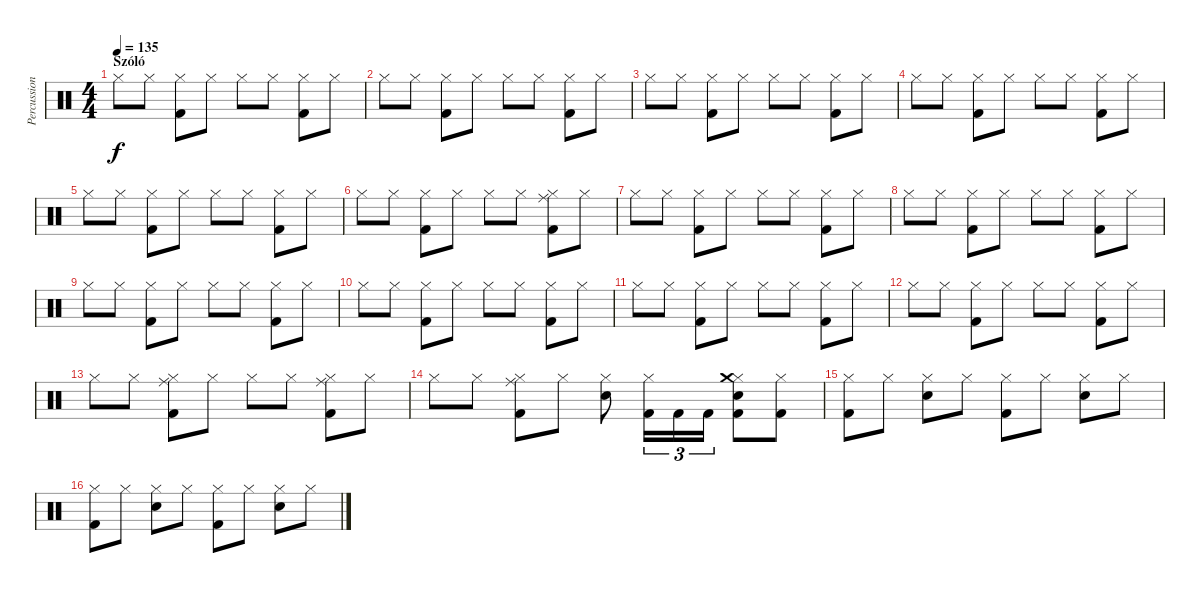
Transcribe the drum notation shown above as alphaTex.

\track ("Percussion" "Percussion") {instrument percussion}
\staff {score}
\articulation defaults
\ts (4 4)
\section ("" "Szóló")
\tempo 135
\clef neutral
\ks c "Hi-Hat (closed)".8{dy f} "Hi-Hat (closed)".8
("Hi-Hat (closed)" "Kick (hit) 2").8 "Hi-Hat (closed)".8 "Hi-Hat (closed)".8 "Hi-Hat (closed)".8 ("Hi-Hat (closed)" "Kick (hit) 2").8 "Hi-Hat (closed)".8 |
"Hi-Hat (closed)".8 "Hi-Hat (closed)".8 ("Hi-Hat (closed)" "Kick (hit) 2").8 "Hi-Hat (closed)".8 "Hi-Hat (closed)".8 "Hi-Hat (closed)".8 ("Hi-Hat (closed)" "Kick (hit) 2").8 "Hi-Hat (closed)".8 |
"Hi-Hat (closed)".8 "Hi-Hat (closed)".8 ("Hi-Hat (closed)" "Kick (hit) 2").8 "Hi-Hat (closed)".8 "Hi-Hat (closed)".8 "Hi-Hat (closed)".8 ("Hi-Hat (closed)" "Kick (hit) 2").8 "Hi-Hat (closed)".8 |
"Hi-Hat (closed)".8 "Hi-Hat (closed)".8 ("Hi-Hat (closed)" "Kick (hit) 2").8 "Hi-Hat (closed)".8 "Hi-Hat (closed)".8 "Hi-Hat (closed)".8 ("Hi-Hat (closed)" "Kick (hit) 2").8 "Hi-Hat (closed)".8 |
"Hi-Hat (closed)".8 "Hi-Hat (closed)".8 ("Hi-Hat (closed)" "Kick (hit) 2").8 "Hi-Hat (closed)".8 "Hi-Hat (closed)".8 "Hi-Hat (closed)".8 ("Hi-Hat (closed)" "Kick (hit) 2").8 "Hi-Hat (closed)".8 |
"Hi-Hat (closed)".8 "Hi-Hat (closed)".8 ("Hi-Hat (closed)" "Kick (hit) 2").8 "Hi-Hat (closed)".8 "Hi-Hat (closed)".8 "Hi-Hat (closed)".8 ("Hi-Hat (closed)" "Kick (hit) 2" "Ride (middle)").8 "Hi-Hat (closed)".8 |
"Hi-Hat (closed)".8 "Hi-Hat (closed)".8 ("Hi-Hat (closed)" "Kick (hit) 2").8 "Hi-Hat (closed)".8 "Hi-Hat (closed)".8 "Hi-Hat (closed)".8 ("Hi-Hat (closed)" "Kick (hit) 2").8 "Hi-Hat (closed)".8 |
"Hi-Hat (closed)".8 "Hi-Hat (closed)".8 ("Hi-Hat (closed)" "Kick (hit) 2").8 "Hi-Hat (closed)".8 "Hi-Hat (closed)".8 "Hi-Hat (closed)".8 ("Hi-Hat (closed)" "Kick (hit) 2").8 "Hi-Hat (closed)".8 |
"Hi-Hat (closed)".8 "Hi-Hat (closed)".8 ("Hi-Hat (closed)" "Kick (hit) 2").8 "Hi-Hat (closed)".8 "Hi-Hat (closed)".8 "Hi-Hat (closed)".8 ("Hi-Hat (closed)" "Kick (hit) 2").8 "Hi-Hat (closed)".8 |
"Hi-Hat (closed)".8 "Hi-Hat (closed)".8 ("Hi-Hat (closed)" "Kick (hit) 2").8 "Hi-Hat (closed)".8 "Hi-Hat (closed)".8 "Hi-Hat (closed)".8 ("Hi-Hat (closed)" "Kick (hit) 2").8 "Hi-Hat (closed)".8 |
"Hi-Hat (closed)".8 "Hi-Hat (closed)".8 ("Hi-Hat (closed)" "Kick (hit) 2").8 "Hi-Hat (closed)".8 "Hi-Hat (closed)".8 "Hi-Hat (closed)".8 ("Hi-Hat (closed)" "Kick (hit) 2").8 "Hi-Hat (closed)".8 |
"Hi-Hat (closed)".8 "Hi-Hat (closed)".8 ("Hi-Hat (closed)" "Kick (hit) 2").8 "Hi-Hat (closed)".8 "Hi-Hat (closed)".8 "Hi-Hat (closed)".8 ("Hi-Hat (closed)" "Kick (hit) 2").8 "Hi-Hat (closed)".8 |
"Hi-Hat (closed)".8 "Hi-Hat (closed)".8 ("Hi-Hat (closed)" "Kick (hit) 2" "Ride (middle)").8 "Hi-Hat (closed)".8 "Hi-Hat (closed)".8 "Hi-Hat (closed)".8 ("Hi-Hat (closed)" "Kick (hit) 2" "Ride (middle)").8 "Hi-Hat (closed)".8 |
"Hi-Hat (closed)".8 "Hi-Hat (closed)".8 ("Hi-Hat (closed)" "Kick (hit) 2" "Ride (middle)").8 "Hi-Hat (closed)".8 ("Hi-Hat (closed)" "Electric Snare (hit)").8 ("Hi-Hat (closed)" "Kick (hit) 2").16{tu (3 2)} "Kick (hit) 2".16{tu (3 2)} "Kick (hit) 2".16{tu (3 2)} ("Hi-Hat (closed)" "Kick (hit) 2" "Crash medium (hit)" "Electric Snare (hit)").8 ("Hi-Hat (closed)" "Kick (hit) 2").8 |
("Hi-Hat (closed)" "Kick (hit) 2").8 "Hi-Hat (closed)".8 ("Hi-Hat (closed)" "Electric Snare (hit)").8 "Hi-Hat (closed)".8 ("Hi-Hat (closed)" "Kick (hit) 2").8 "Hi-Hat (closed)".8 ("Hi-Hat (closed)" "Electric Snare (hit)").8 "Hi-Hat (closed)".8 |
("Hi-Hat (closed)" "Kick (hit) 2").8 "Hi-Hat (closed)".8 ("Hi-Hat (closed)" "Electric Snare (hit)").8 "Hi-Hat (closed)".8 ("Hi-Hat (closed)" "Kick (hit) 2").8 "Hi-Hat (closed)".8 ("Hi-Hat (closed)" "Electric Snare (hit)").8 "Hi-Hat (closed)".8
